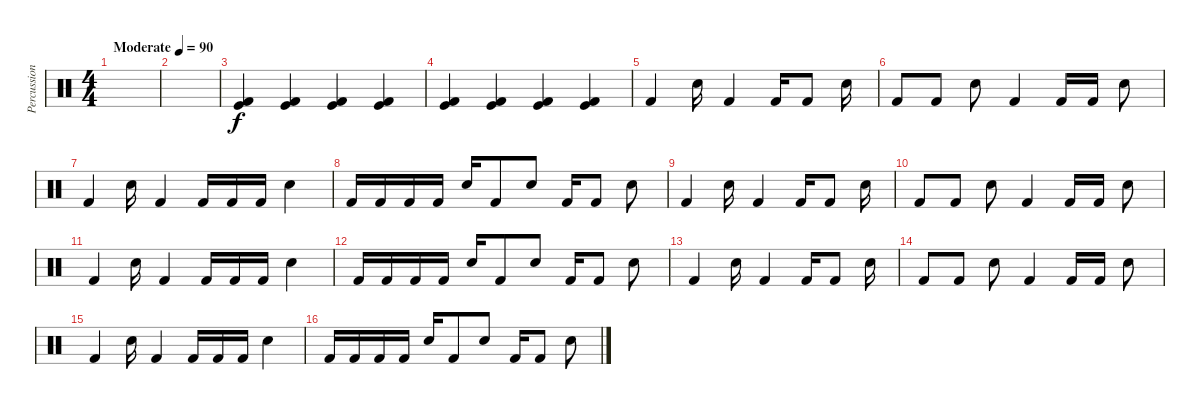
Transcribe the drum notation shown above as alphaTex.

\track ("Percussion" "Percussion") {instrument percussion}
\staff {score}
\articulation defaults
\ts (4 4)
\tempo (90 "Moderate")
\clef neutral
\ks c
|
|
("Kick (hit) 2" "Kick (hit)").4 ("Kick (hit) 2" "Kick (hit)").4 ("Kick (hit) 2" "Kick (hit)").4 ("Kick (hit) 2" "Kick (hit)").4 |
("Kick (hit) 2" "Kick (hit)").4 ("Kick (hit) 2" "Kick (hit)").4 ("Kick (hit) 2" "Kick (hit)").4 ("Kick (hit) 2" "Kick (hit)").4 |
"Kick (hit) 2".4 "Hand Clap (hit)".16 "Kick (hit) 2".4 "Kick (hit) 2".16 "Kick (hit) 2".8 "Hand Clap (hit)".16 |
"Kick (hit) 2".8 "Kick (hit) 2".8 "Hand Clap (hit)".8 "Kick (hit) 2".4 "Kick (hit) 2".16 "Kick (hit) 2".16 "Hand Clap (hit)".8 |
"Kick (hit) 2".4 "Hand Clap (hit)".16 "Kick (hit) 2".4 "Kick (hit) 2".16 "Kick (hit) 2".16 "Kick (hit) 2".16 "Hand Clap (hit)".4 |
"Kick (hit) 2".16 "Kick (hit) 2".16 "Kick (hit) 2".16 "Kick (hit) 2".16 "Hand Clap (hit)".16 "Kick (hit) 2".8 "Hand Clap (hit)".8 "Kick (hit) 2".16 "Kick (hit) 2".8 "Hand Clap (hit)".8 |
"Kick (hit) 2".4 "Hand Clap (hit)".16 "Kick (hit) 2".4 "Kick (hit) 2".16 "Kick (hit) 2".8 "Hand Clap (hit)".16 |
"Kick (hit) 2".8 "Kick (hit) 2".8 "Hand Clap (hit)".8 "Kick (hit) 2".4 "Kick (hit) 2".16 "Kick (hit) 2".16 "Hand Clap (hit)".8 |
"Kick (hit) 2".4 "Hand Clap (hit)".16 "Kick (hit) 2".4 "Kick (hit) 2".16 "Kick (hit) 2".16 "Kick (hit) 2".16 "Hand Clap (hit)".4 |
"Kick (hit) 2".16 "Kick (hit) 2".16 "Kick (hit) 2".16 "Kick (hit) 2".16 "Hand Clap (hit)".16 "Kick (hit) 2".8 "Hand Clap (hit)".8 "Kick (hit) 2".16 "Kick (hit) 2".8 "Hand Clap (hit)".8 |
"Kick (hit) 2".4 "Hand Clap (hit)".16 "Kick (hit) 2".4 "Kick (hit) 2".16 "Kick (hit) 2".8 "Hand Clap (hit)".16 |
"Kick (hit) 2".8 "Kick (hit) 2".8 "Hand Clap (hit)".8 "Kick (hit) 2".4 "Kick (hit) 2".16 "Kick (hit) 2".16 "Hand Clap (hit)".8 |
"Kick (hit) 2".4 "Hand Clap (hit)".16 "Kick (hit) 2".4 "Kick (hit) 2".16 "Kick (hit) 2".16 "Kick (hit) 2".16 "Hand Clap (hit)".4 |
"Kick (hit) 2".16 "Kick (hit) 2".16 "Kick (hit) 2".16 "Kick (hit) 2".16 "Hand Clap (hit)".16 "Kick (hit) 2".8 "Hand Clap (hit)".8 "Kick (hit) 2".16 "Kick (hit) 2".8 "Hand Clap (hit)".8
